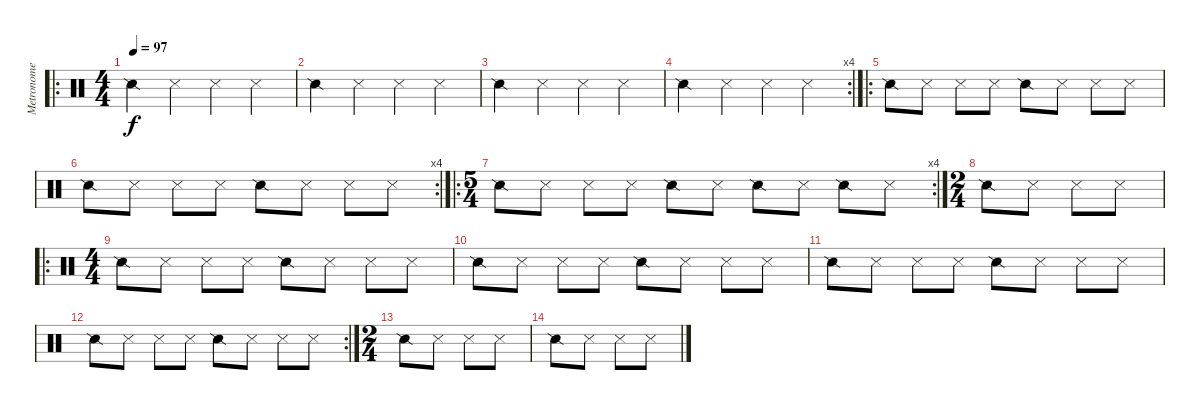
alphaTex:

\track ("Metronome" "Metronome") {instrument percussion}
\staff {score}
\articulation defaults
\ro
\ts (4 4)
\tempo 97
\clef neutral
\ks c "Snare (side stick) 2".4{dy f} "Snare (side stick) 3".4 "Snare (side stick) 3".4 "Snare (side stick) 3".4
|
"Snare (side stick) 2".4 "Snare (side stick) 3".4 "Snare (side stick) 3".4 "Snare (side stick) 3".4 |
"Snare (side stick) 2".4 "Snare (side stick) 3".4 "Snare (side stick) 3".4 "Snare (side stick) 3".4 |
\rc 4 "Snare (side stick) 2".4 "Snare (side stick) 3".4 "Snare (side stick) 3".4 "Snare (side stick) 3".4
|
\ro "Snare (side stick) 2".8 "Snare (side stick) 3".8 "Snare (side stick) 3".8 "Snare (side stick) 3".8 "Snare (side stick) 2".8 "Snare (side stick) 3".8 "Snare (side stick) 3".8 "Snare (side stick) 3".8
|
\rc 4 "Snare (side stick) 2".8 "Snare (side stick) 3".8 "Snare (side stick) 3".8 "Snare (side stick) 3".8 "Snare (side stick) 2".8 "Snare (side stick) 3".8 "Snare (side stick) 3".8 "Snare (side stick) 3".8
|
\ro
\rc 4
\ts (5 4)
"Snare (side stick) 2".8 "Snare (side stick) 3".8 "Snare (side stick) 3".8 "Snare (side stick) 3".8 "Snare (side stick) 2".8 "Snare (side stick) 3".8 "Snare (side stick) 2".8 "Snare (side stick) 3".8 "Snare (side stick) 2".8 "Snare (side stick) 3".8 |
\ts (2 4)
"Snare (side stick) 2".8 "Snare (side stick) 3".8 "Snare (side stick) 3".8 "Snare (side stick) 3".8 |
\ro
\ts (4 4)
"Snare (side stick) 2".8 "Snare (side stick) 3".8 "Snare (side stick) 3".8 "Snare (side stick) 3".8 "Snare (side stick) 2".8 "Snare (side stick) 3".8 "Snare (side stick) 3".8 "Snare (side stick) 3".8 |
"Snare (side stick) 2".8 "Snare (side stick) 3".8 "Snare (side stick) 3".8 "Snare (side stick) 3".8 "Snare (side stick) 2".8 "Snare (side stick) 3".8 "Snare (side stick) 3".8 "Snare (side stick) 3".8 |
"Snare (side stick) 2".8 "Snare (side stick) 3".8 "Snare (side stick) 3".8 "Snare (side stick) 3".8 "Snare (side stick) 2".8 "Snare (side stick) 3".8 "Snare (side stick) 3".8 "Snare (side stick) 3".8 |
\rc 2 "Snare (side stick) 2".8 "Snare (side stick) 3".8 "Snare (side stick) 3".8 "Snare (side stick) 3".8 "Snare (side stick) 2".8 "Snare (side stick) 3".8 "Snare (side stick) 3".8 "Snare (side stick) 3".8
|
\ts (2 4)
"Snare (side stick) 2".8 "Snare (side stick) 3".8 "Snare (side stick) 3".8 "Snare (side stick) 3".8 |
"Snare (side stick) 2".8 "Snare (side stick) 3".8 "Snare (side stick) 3".8 "Snare (side stick) 3".8
